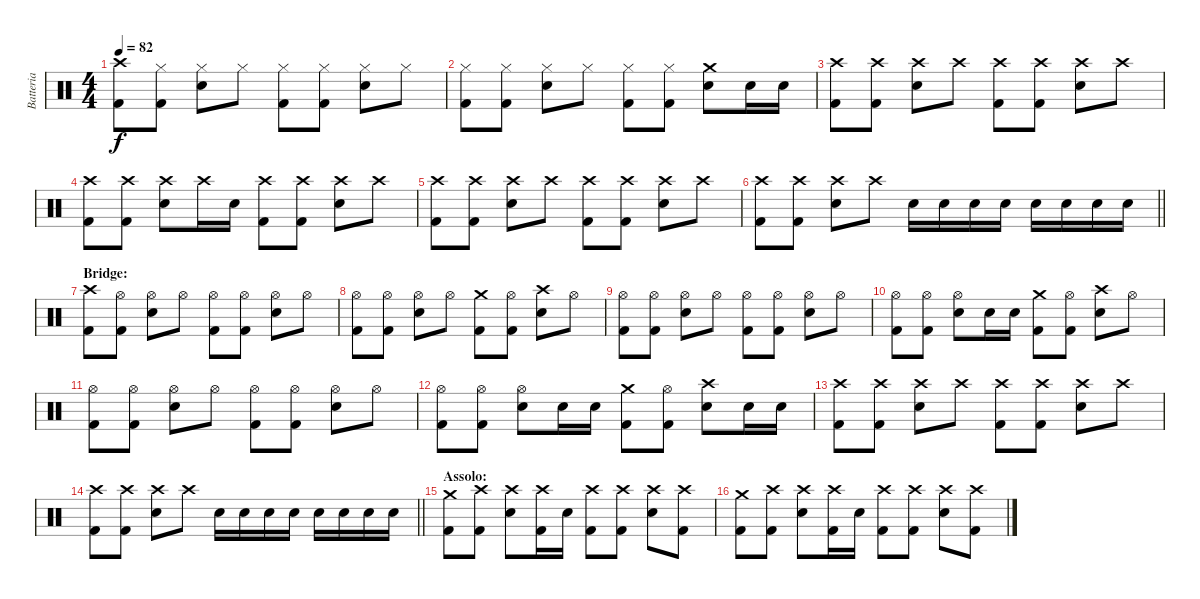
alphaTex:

\track ("Batteria" "Batteria") {instrument percussion}
\staff {score}
\articulation defaults
\ts (4 4)
\tempo 82
\clef neutral
\ks c
("Crash high (hit)" "Kick (hit) 2").8{dy f} ("Hi-Hat (closed)" "Kick (hit) 2").8 ("Hi-Hat (closed)" "Snare (hit) 2").8 "Hi-Hat (closed)".8 ("Hi-Hat (closed)" "Kick (hit) 2").8 ("Hi-Hat (closed)" "Kick (hit) 2").8 ("Hi-Hat (closed)" "Snare (hit) 2").8 "Hi-Hat (closed)".8 |
("Hi-Hat (closed)" "Kick (hit) 2").8 ("Hi-Hat (closed)" "Kick (hit) 2").8 ("Hi-Hat (closed)" "Snare (hit) 2").8 "Hi-Hat (closed)".8 ("Hi-Hat (closed)" "Kick (hit) 2").8 ("Hi-Hat (closed)" "Kick (hit) 2").8 ("Crash medium (hit)" "Snare (hit) 2").8 "Snare (hit) 2".16 "Snare (hit) 2".16 |
("Crash high (hit)" "Kick (hit) 2").8 ("Crash high (hit)" "Kick (hit) 2").8 ("Crash high (hit)" "Snare (hit) 2").8 "Crash high (hit)".8 ("Crash high (hit)" "Kick (hit) 2").8 ("Crash high (hit)" "Kick (hit) 2").8 ("Crash high (hit)" "Snare (hit) 2").8 "Crash high (hit)".8 |
("Crash high (hit)" "Kick (hit) 2").8 ("Crash high (hit)" "Kick (hit) 2").8 ("Crash high (hit)" "Snare (hit) 2").8 "Crash high (hit)".16 "Snare (hit) 2".16 ("Crash high (hit)" "Kick (hit) 2").8 ("Crash high (hit)" "Kick (hit) 2").8 ("Crash high (hit)" "Snare (hit) 2").8 "Crash high (hit)".8 |
("Crash high (hit)" "Kick (hit) 2").8 ("Crash high (hit)" "Kick (hit) 2").8 ("Crash high (hit)" "Snare (hit) 2").8 "Crash high (hit)".8 ("Crash high (hit)" "Kick (hit) 2").8 ("Crash high (hit)" "Kick (hit) 2").8 ("Crash high (hit)" "Snare (hit) 2").8 "Crash high (hit)".8 |
\barLineRight lightlight
("Crash high (hit)" "Kick (hit) 2").8 ("Crash high (hit)" "Kick (hit) 2").8 ("Crash high (hit)" "Snare (hit) 2").8 "Crash high (hit)".8 "Snare (hit) 2".16 "Snare (hit) 2".16 "Snare (hit) 2".16 "Snare (hit) 2".16 "Snare (hit) 2".16 "Snare (hit) 2".16 "Snare (hit) 2".16 "Snare (hit) 2".16 |
\section ("" "Bridge:")
("Crash high (hit)" "Kick (hit) 2").8 ("Hi-Hat (open)" "Kick (hit) 2").8 ("Hi-Hat (open)" "Snare (hit) 2").8 "Hi-Hat (open)".8 ("Hi-Hat (open)" "Kick (hit) 2").8 ("Hi-Hat (open)" "Kick (hit) 2").8 ("Hi-Hat (open)" "Snare (hit) 2").8 "Hi-Hat (open)".8 |
("Hi-Hat (open)" "Kick (hit) 2").8 ("Hi-Hat (open)" "Kick (hit) 2").8 ("Hi-Hat (open)" "Snare (hit) 2").8 "Hi-Hat (open)".8 ("Crash medium (hit)" "Kick (hit) 2").8 ("Hi-Hat (open)" "Kick (hit) 2").8 ("Crash high (hit)" "Snare (hit) 2").8 "Hi-Hat (open)".8 |
("Hi-Hat (open)" "Kick (hit) 2").8 ("Hi-Hat (open)" "Kick (hit) 2").8 ("Hi-Hat (open)" "Snare (hit) 2").8 "Hi-Hat (open)".8 ("Hi-Hat (open)" "Kick (hit) 2").8 ("Hi-Hat (open)" "Kick (hit) 2").8 ("Hi-Hat (open)" "Snare (hit) 2").8 "Hi-Hat (open)".8 |
("Hi-Hat (open)" "Kick (hit) 2").8 ("Hi-Hat (open)" "Kick (hit) 2").8 ("Hi-Hat (open)" "Snare (hit) 2").8 "Snare (hit) 2".16 "Snare (hit) 2".16 ("Crash medium (hit)" "Kick (hit) 2").8 ("Hi-Hat (open)" "Kick (hit) 2").8 ("Crash high (hit)" "Snare (hit) 2").8 "Hi-Hat (open)".8 |
("Hi-Hat (open)" "Kick (hit) 2").8 ("Hi-Hat (open)" "Kick (hit) 2").8 ("Hi-Hat (open)" "Snare (hit) 2").8 "Hi-Hat (open)".8 ("Hi-Hat (open)" "Kick (hit) 2").8 ("Hi-Hat (open)" "Kick (hit) 2").8 ("Hi-Hat (open)" "Snare (hit) 2").8 "Hi-Hat (open)".8 |
("Hi-Hat (open)" "Kick (hit) 2").8 ("Hi-Hat (open)" "Kick (hit) 2").8 ("Hi-Hat (open)" "Snare (hit) 2").8 "Snare (hit) 2".16 "Snare (hit) 2".16 ("Crash medium (hit)" "Kick (hit) 2").8 ("Hi-Hat (open)" "Kick (hit) 2").8 ("Crash high (hit)" "Snare (hit) 2").8 "Snare (hit) 2".16 "Snare (hit) 2".16 |
("Crash high (hit)" "Kick (hit) 2").8 ("Crash high (hit)" "Kick (hit) 2").8 ("Crash high (hit)" "Snare (hit) 2").8 "Crash high (hit)".8 ("Crash high (hit)" "Kick (hit) 2").8 ("Crash high (hit)" "Kick (hit) 2").8 ("Crash high (hit)" "Snare (hit) 2").8 "Crash high (hit)".8 |
\barLineRight lightlight
("Crash high (hit)" "Kick (hit) 2").8 ("Crash high (hit)" "Kick (hit) 2").8 ("Crash high (hit)" "Snare (hit) 2").8 "Crash high (hit)".8 "Snare (hit) 2".16 "Snare (hit) 2".16 "Snare (hit) 2".16 "Snare (hit) 2".16 "Snare (hit) 2".16 "Snare (hit) 2".16 "Snare (hit) 2".16 "Snare (hit) 2".16 |
\section ("" "Assolo:")
("Crash medium (hit)" "Kick (hit) 2").8 ("Crash high (hit)" "Kick (hit) 2").8 ("Crash high (hit)" "Snare (hit) 2").8 ("Crash high (hit)" "Kick (hit) 2").16 "Snare (hit) 2".16 ("Crash high (hit)" "Kick (hit) 2").8 ("Crash high (hit)" "Kick (hit) 2").8 ("Crash high (hit)" "Snare (hit) 2").8 ("Crash high (hit)" "Kick (hit) 2").8 |
("Crash medium (hit)" "Kick (hit) 2").8 ("Crash high (hit)" "Kick (hit) 2").8 ("Crash high (hit)" "Snare (hit) 2").8 ("Crash high (hit)" "Kick (hit) 2").16 "Snare (hit) 2".16 ("Crash high (hit)" "Kick (hit) 2").8 ("Crash high (hit)" "Kick (hit) 2").8 ("Crash high (hit)" "Snare (hit) 2").8 ("Crash high (hit)" "Kick (hit) 2").8
